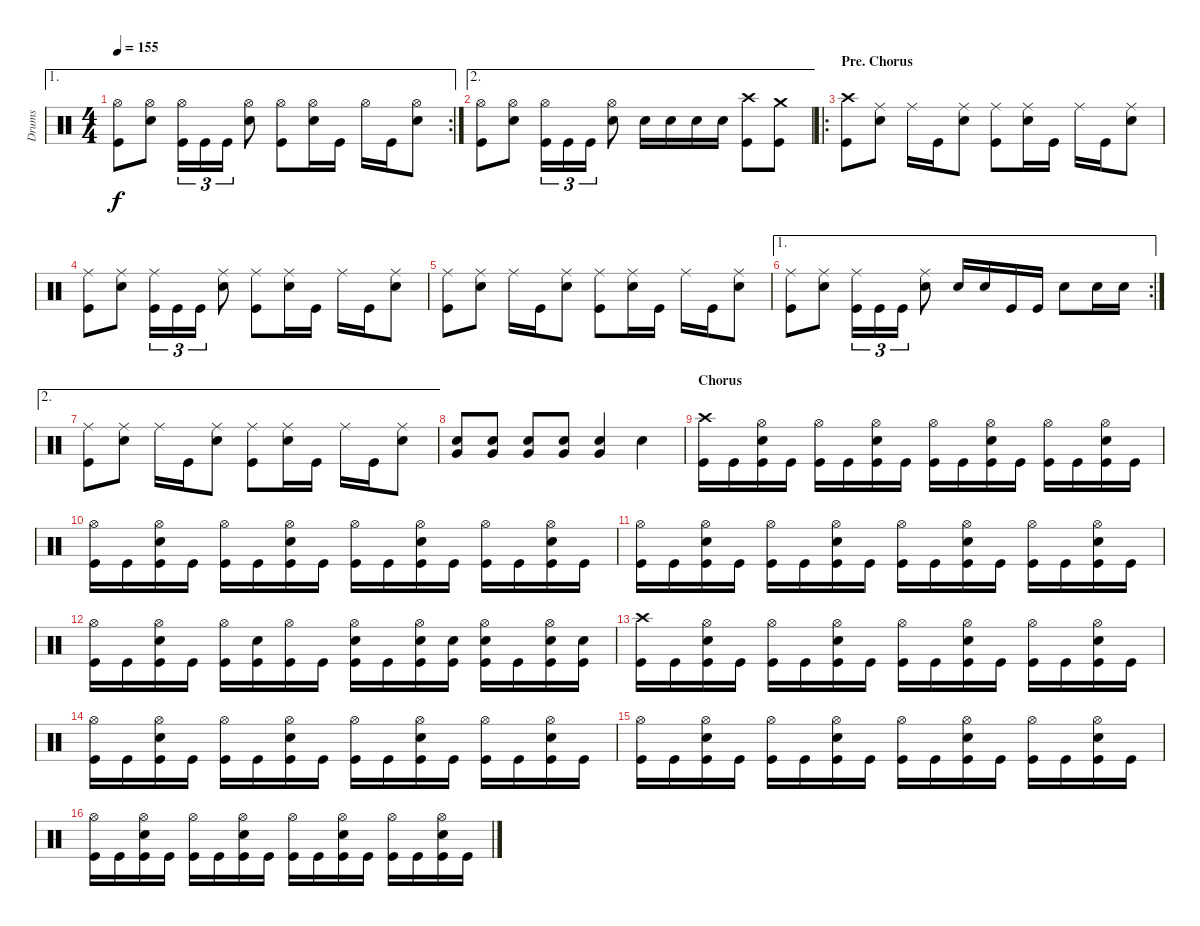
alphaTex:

\track ("Drums" "Drums") {instrument percussion}
\staff {score}
\articulation defaults
\ae 1
\rc 2
\ts (4 4)
\tempo 155
\clef neutral
\ks c
("Hi-Hat (open)" "Kick (hit)").8{dy f} ("Hi-Hat (open)" "Snare (hit) 2").8 ("Hi-Hat (open)" "Kick (hit)").16{tu (3 2)} "Kick (hit)".16{tu (3 2)} "Kick (hit)".16{tu (3 2)} ("Hi-Hat (open)" "Snare (hit) 2").8 ("Hi-Hat (open)" "Kick (hit)").8 ("Hi-Hat (open)" "Snare (hit) 2").16 "Kick (hit)".16 "Hi-Hat (open)".16 "Kick (hit)".16 ("Hi-Hat (open)" "Snare (hit) 2").8 |
\ae 2
("Hi-Hat (open)" "Kick (hit)").8 ("Hi-Hat (open)" "Snare (hit) 2").8 ("Hi-Hat (open)" "Kick (hit)").16{tu (3 2)} "Kick (hit)".16{tu (3 2)} "Kick (hit)".16{tu (3 2)} ("Hi-Hat (open)" "Snare (hit) 2").8 "Snare (hit) 2".16 "Snare (hit) 2".16 "Snare (hit) 2".16 "Snare (hit) 2".16 ("Crash high (hit)" "Kick (hit)").8 ("Crash medium (hit)" "Kick (hit)").8 |
\ro
\section ("" "Pre. Chorus")
("Crash high (hit)" "Kick (hit)").8 ("Ride (middle)" "Snare (hit) 2").8 "Ride (middle)".16 "Kick (hit)".16 ("Ride (middle)" "Snare (hit) 2").8 ("Ride (middle)" "Kick (hit)").8 ("Ride (middle)" "Snare (hit) 2").16 "Kick (hit)".16 "Ride (middle)".16 "Kick (hit)".16 ("Ride (middle)" "Snare (hit) 2").8 |
("Ride (middle)" "Kick (hit)").8 ("Ride (middle)" "Snare (hit) 2").8 ("Ride (middle)" "Kick (hit)").16{tu (3 2)} "Kick (hit)".16{tu (3 2)} "Kick (hit)".16{tu (3 2)} ("Ride (middle)" "Snare (hit) 2").8 ("Ride (middle)" "Kick (hit)").8 ("Ride (middle)" "Snare (hit) 2").16 "Kick (hit)".16 "Ride (middle)".16 "Kick (hit)".16 ("Ride (middle)" "Snare (hit) 2").8 |
("Ride (middle)" "Kick (hit)").8 ("Ride (middle)" "Snare (hit) 2").8 "Ride (middle)".16 "Kick (hit)".16 ("Ride (middle)" "Snare (hit) 2").8 ("Ride (middle)" "Kick (hit)").8 ("Ride (middle)" "Snare (hit) 2").16 "Kick (hit)".16 "Ride (middle)".16 "Kick (hit)".16 ("Ride (middle)" "Snare (hit) 2").8 |
\ae 1
\rc 2
("Ride (middle)" "Kick (hit)").8 ("Ride (middle)" "Snare (hit) 2").8 ("Ride (middle)" "Kick (hit)").16{tu (3 2)} "Kick (hit)".16{tu (3 2)} "Kick (hit)".16{tu (3 2)} ("Ride (middle)" "Snare (hit) 2").8 "Snare (hit) 2".16 "Snare (hit) 2".16 "Kick (hit)".16 "Kick (hit)".16 "Snare (hit) 2".8 "Snare (hit) 2".16 "Snare (hit) 2".16 |
\ae 2
("Ride (middle)" "Kick (hit)").8 ("Ride (middle)" "Snare (hit) 2").8 "Ride (middle)".16 "Kick (hit)".16 ("Ride (middle)" "Snare (hit) 2").8 ("Ride (middle)" "Kick (hit)").8 ("Ride (middle)" "Snare (hit) 2").16 "Kick (hit)".16 "Ride (middle)".16 "Kick (hit)".16 ("Ride (middle)" "Snare (hit) 2").8 |
("Very Low Tom (hit)" "Snare (hit) 2").8 ("Very Low Tom (hit)" "Snare (hit) 2").8 ("Very Low Tom (hit)" "Snare (hit) 2").8 ("Very Low Tom (hit)" "Snare (hit) 2").8 ("Very Low Tom (hit)" "Snare (hit) 2").4 "Snare (hit) 2".4 |
\section ("" "Chorus")
("Crash high (hit)" "Kick (hit)").16 "Kick (hit)".16 ("Hi-Hat (open)" "Snare (hit) 2" "Kick (hit)").16 "Kick (hit)".16 ("Hi-Hat (open)" "Kick (hit)").16 "Kick (hit)".16 ("Hi-Hat (open)" "Snare (hit) 2" "Kick (hit)").16 "Kick (hit)".16 ("Hi-Hat (open)" "Kick (hit)").16 "Kick (hit)".16 ("Hi-Hat (open)" "Snare (hit) 2" "Kick (hit)").16 "Kick (hit)".16 ("Hi-Hat (open)" "Kick (hit)").16 "Kick (hit)".16 ("Hi-Hat (open)" "Snare (hit) 2" "Kick (hit)").16 "Kick (hit)".16 |
("Hi-Hat (open)" "Kick (hit)").16 "Kick (hit)".16 ("Hi-Hat (open)" "Snare (hit) 2" "Kick (hit)").16 "Kick (hit)".16 ("Hi-Hat (open)" "Kick (hit)").16 "Kick (hit)".16 ("Hi-Hat (open)" "Snare (hit) 2" "Kick (hit)").16 "Kick (hit)".16 ("Hi-Hat (open)" "Kick (hit)").16 "Kick (hit)".16 ("Hi-Hat (open)" "Snare (hit) 2" "Kick (hit)").16 "Kick (hit)".16 ("Hi-Hat (open)" "Kick (hit)").16 "Kick (hit)".16 ("Hi-Hat (open)" "Snare (hit) 2" "Kick (hit)").16 "Kick (hit)".16 |
("Hi-Hat (open)" "Kick (hit)").16 "Kick (hit)".16 ("Hi-Hat (open)" "Snare (hit) 2" "Kick (hit)").16 "Kick (hit)".16 ("Hi-Hat (open)" "Kick (hit)").16 "Kick (hit)".16 ("Hi-Hat (open)" "Snare (hit) 2" "Kick (hit)").16 "Kick (hit)".16 ("Hi-Hat (open)" "Kick (hit)").16 "Kick (hit)".16 ("Hi-Hat (open)" "Snare (hit) 2" "Kick (hit)").16 "Kick (hit)".16 ("Hi-Hat (open)" "Kick (hit)").16 "Kick (hit)".16 ("Hi-Hat (open)" "Snare (hit) 2" "Kick (hit)").16 "Kick (hit)".16 |
("Hi-Hat (open)" "Kick (hit)").16 "Kick (hit)".16 ("Hi-Hat (open)" "Snare (hit) 2" "Kick (hit)").16 "Kick (hit)".16 ("Hi-Hat (open)" "Kick (hit)").16 ("Snare (hit) 2" "Kick (hit)").16 ("Hi-Hat (open)" "Kick (hit)").16 "Kick (hit)".16 ("Hi-Hat (open)" "Snare (hit) 2" "Kick (hit)").16 "Kick (hit)".16 ("Hi-Hat (open)" "Snare (hit) 2" "Kick (hit)").16 ("Snare (hit) 2" "Kick (hit)").16 ("Hi-Hat (open)" "Snare (hit) 2" "Kick (hit)").16 "Kick (hit)".16 ("Hi-Hat (open)" "Snare (hit) 2" "Kick (hit)").16 ("Snare (hit) 2" "Kick (hit)").16 |
("Crash high (hit)" "Kick (hit)").16 "Kick (hit)".16 ("Hi-Hat (open)" "Snare (hit) 2" "Kick (hit)").16 "Kick (hit)".16 ("Hi-Hat (open)" "Kick (hit)").16 "Kick (hit)".16 ("Hi-Hat (open)" "Snare (hit) 2" "Kick (hit)").16 "Kick (hit)".16 ("Hi-Hat (open)" "Kick (hit)").16 "Kick (hit)".16 ("Hi-Hat (open)" "Snare (hit) 2" "Kick (hit)").16 "Kick (hit)".16 ("Hi-Hat (open)" "Kick (hit)").16 "Kick (hit)".16 ("Hi-Hat (open)" "Snare (hit) 2" "Kick (hit)").16 "Kick (hit)".16 |
("Hi-Hat (open)" "Kick (hit)").16 "Kick (hit)".16 ("Hi-Hat (open)" "Snare (hit) 2" "Kick (hit)").16 "Kick (hit)".16 ("Hi-Hat (open)" "Kick (hit)").16 "Kick (hit)".16 ("Hi-Hat (open)" "Snare (hit) 2" "Kick (hit)").16 "Kick (hit)".16 ("Hi-Hat (open)" "Kick (hit)").16 "Kick (hit)".16 ("Hi-Hat (open)" "Snare (hit) 2" "Kick (hit)").16 "Kick (hit)".16 ("Hi-Hat (open)" "Kick (hit)").16 "Kick (hit)".16 ("Hi-Hat (open)" "Snare (hit) 2" "Kick (hit)").16 "Kick (hit)".16 |
("Hi-Hat (open)" "Kick (hit)").16 "Kick (hit)".16 ("Hi-Hat (open)" "Snare (hit) 2" "Kick (hit)").16 "Kick (hit)".16 ("Hi-Hat (open)" "Kick (hit)").16 "Kick (hit)".16 ("Hi-Hat (open)" "Snare (hit) 2" "Kick (hit)").16 "Kick (hit)".16 ("Hi-Hat (open)" "Kick (hit)").16 "Kick (hit)".16 ("Hi-Hat (open)" "Snare (hit) 2" "Kick (hit)").16 "Kick (hit)".16 ("Hi-Hat (open)" "Kick (hit)").16 "Kick (hit)".16 ("Hi-Hat (open)" "Snare (hit) 2" "Kick (hit)").16 "Kick (hit)".16 |
("Hi-Hat (open)" "Kick (hit)").16 "Kick (hit)".16 ("Hi-Hat (open)" "Snare (hit) 2" "Kick (hit)").16 "Kick (hit)".16 ("Hi-Hat (open)" "Kick (hit)").16 "Kick (hit)".16 ("Hi-Hat (open)" "Snare (hit) 2" "Kick (hit)").16 "Kick (hit)".16 ("Hi-Hat (open)" "Kick (hit)").16 "Kick (hit)".16 ("Hi-Hat (open)" "Snare (hit) 2" "Kick (hit)").16 "Kick (hit)".16 ("Hi-Hat (open)" "Kick (hit)").16 "Kick (hit)".16 ("Hi-Hat (open)" "Snare (hit) 2" "Kick (hit)").16 "Kick (hit)".16
